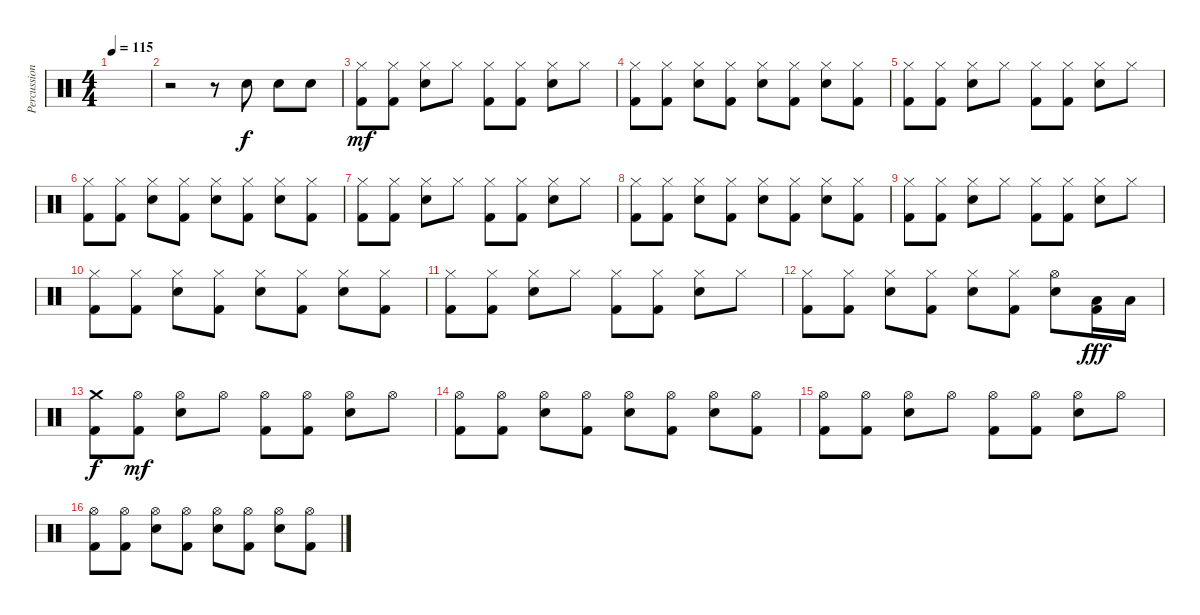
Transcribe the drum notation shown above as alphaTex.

\track ("Percussion" "Percussion") {instrument percussion}
\staff {score}
\articulation defaults
\ts (4 4)
\tempo 115
\clef neutral
\ks c
|
r.2 r.8 "Electric Snare (hit)".8 "Electric Snare (hit)".8 "Electric Snare (hit)".8 |
("Hi-Hat (closed)" "Kick (hit) 2").8{dy mf} ("Hi-Hat (closed)" "Kick (hit) 2").8 ("Hi-Hat (closed)" "Electric Snare (hit)").8 "Hi-Hat (closed)".8 ("Hi-Hat (closed)" "Kick (hit) 2").8 ("Hi-Hat (closed)" "Kick (hit) 2").8 ("Hi-Hat (closed)" "Electric Snare (hit)").8 "Hi-Hat (closed)".8 |
("Hi-Hat (closed)" "Kick (hit) 2").8 ("Hi-Hat (closed)" "Kick (hit) 2").8 ("Hi-Hat (closed)" "Electric Snare (hit)").8 ("Hi-Hat (closed)" "Kick (hit) 2").8 ("Hi-Hat (closed)" "Electric Snare (hit)").8 ("Hi-Hat (closed)" "Kick (hit) 2").8 ("Hi-Hat (closed)" "Electric Snare (hit)").8 ("Hi-Hat (closed)" "Kick (hit) 2").8 |
("Hi-Hat (closed)" "Kick (hit) 2").8 ("Hi-Hat (closed)" "Kick (hit) 2").8 ("Hi-Hat (closed)" "Electric Snare (hit)").8 "Hi-Hat (closed)".8 ("Hi-Hat (closed)" "Kick (hit) 2").8 ("Hi-Hat (closed)" "Kick (hit) 2").8 ("Hi-Hat (closed)" "Electric Snare (hit)").8 "Hi-Hat (closed)".8 |
("Hi-Hat (closed)" "Kick (hit) 2").8 ("Hi-Hat (closed)" "Kick (hit) 2").8 ("Hi-Hat (closed)" "Electric Snare (hit)").8 ("Hi-Hat (closed)" "Kick (hit) 2").8 ("Hi-Hat (closed)" "Electric Snare (hit)").8 ("Hi-Hat (closed)" "Kick (hit) 2").8 ("Hi-Hat (closed)" "Electric Snare (hit)").8 ("Hi-Hat (closed)" "Kick (hit) 2").8 |
("Hi-Hat (closed)" "Kick (hit) 2").8 ("Hi-Hat (closed)" "Kick (hit) 2").8 ("Hi-Hat (closed)" "Electric Snare (hit)").8 "Hi-Hat (closed)".8 ("Hi-Hat (closed)" "Kick (hit) 2").8 ("Hi-Hat (closed)" "Kick (hit) 2").8 ("Hi-Hat (closed)" "Electric Snare (hit)").8 "Hi-Hat (closed)".8 |
("Hi-Hat (closed)" "Kick (hit) 2").8 ("Hi-Hat (closed)" "Kick (hit) 2").8 ("Hi-Hat (closed)" "Electric Snare (hit)").8 ("Hi-Hat (closed)" "Kick (hit) 2").8 ("Hi-Hat (closed)" "Electric Snare (hit)").8 ("Hi-Hat (closed)" "Kick (hit) 2").8 ("Hi-Hat (closed)" "Electric Snare (hit)").8 ("Hi-Hat (closed)" "Kick (hit) 2").8 |
("Hi-Hat (closed)" "Kick (hit) 2").8 ("Hi-Hat (closed)" "Kick (hit) 2").8 ("Hi-Hat (closed)" "Electric Snare (hit)").8 "Hi-Hat (closed)".8 ("Hi-Hat (closed)" "Kick (hit) 2").8 ("Hi-Hat (closed)" "Kick (hit) 2").8 ("Hi-Hat (closed)" "Electric Snare (hit)").8 "Hi-Hat (closed)".8 |
("Hi-Hat (closed)" "Kick (hit) 2").8 ("Hi-Hat (closed)" "Kick (hit) 2").8 ("Hi-Hat (closed)" "Electric Snare (hit)").8 ("Hi-Hat (closed)" "Kick (hit) 2").8 ("Hi-Hat (closed)" "Electric Snare (hit)").8 ("Hi-Hat (closed)" "Kick (hit) 2").8 ("Hi-Hat (closed)" "Electric Snare (hit)").8 ("Hi-Hat (closed)" "Kick (hit) 2").8 |
("Hi-Hat (closed)" "Kick (hit) 2").8 ("Hi-Hat (closed)" "Kick (hit) 2").8 ("Hi-Hat (closed)" "Electric Snare (hit)").8 "Hi-Hat (closed)".8 ("Hi-Hat (closed)" "Kick (hit) 2").8 ("Hi-Hat (closed)" "Kick (hit) 2").8 ("Hi-Hat (closed)" "Electric Snare (hit)").8 "Hi-Hat (closed)".8 |
("Hi-Hat (closed)" "Kick (hit) 2").8 ("Hi-Hat (closed)" "Kick (hit) 2").8 ("Hi-Hat (closed)" "Electric Snare (hit)").8 ("Hi-Hat (closed)" "Kick (hit) 2").8 ("Hi-Hat (closed)" "Electric Snare (hit)").8 ("Hi-Hat (closed)" "Kick (hit) 2").8 ("Hi-Hat (open)" "Electric Snare (hit)").8 ("Low Tom (hit)" "Kick (hit) 2").16{dy fff} "Low Tom (hit)".16 |
("Crash medium (hit)" "Kick (hit) 2").8{dy f} ("Hi-Hat (open)" "Kick (hit) 2").8{dy mf} ("Hi-Hat (open)" "Electric Snare (hit)").8 "Hi-Hat (open)".8 ("Hi-Hat (open)" "Kick (hit) 2").8 ("Hi-Hat (open)" "Kick (hit) 2").8 ("Hi-Hat (open)" "Electric Snare (hit)").8 "Hi-Hat (open)".8 |
("Hi-Hat (open)" "Kick (hit) 2").8 ("Hi-Hat (open)" "Kick (hit) 2").8 ("Hi-Hat (open)" "Electric Snare (hit)").8 ("Hi-Hat (open)" "Kick (hit) 2").8 ("Hi-Hat (open)" "Electric Snare (hit)").8 ("Hi-Hat (open)" "Kick (hit) 2").8 ("Hi-Hat (open)" "Electric Snare (hit)").8 ("Hi-Hat (open)" "Kick (hit) 2").8 |
("Hi-Hat (open)" "Kick (hit) 2").8 ("Hi-Hat (open)" "Kick (hit) 2").8 ("Hi-Hat (open)" "Electric Snare (hit)").8 "Hi-Hat (open)".8 ("Hi-Hat (open)" "Kick (hit) 2").8 ("Hi-Hat (open)" "Kick (hit) 2").8 ("Hi-Hat (open)" "Electric Snare (hit)").8 "Hi-Hat (open)".8 |
("Hi-Hat (open)" "Kick (hit) 2").8 ("Hi-Hat (open)" "Kick (hit) 2").8 ("Hi-Hat (open)" "Electric Snare (hit)").8 ("Hi-Hat (open)" "Kick (hit) 2").8 ("Hi-Hat (open)" "Electric Snare (hit)").8 ("Hi-Hat (open)" "Kick (hit) 2").8 ("Hi-Hat (open)" "Electric Snare (hit)").8 ("Hi-Hat (open)" "Kick (hit) 2").8
